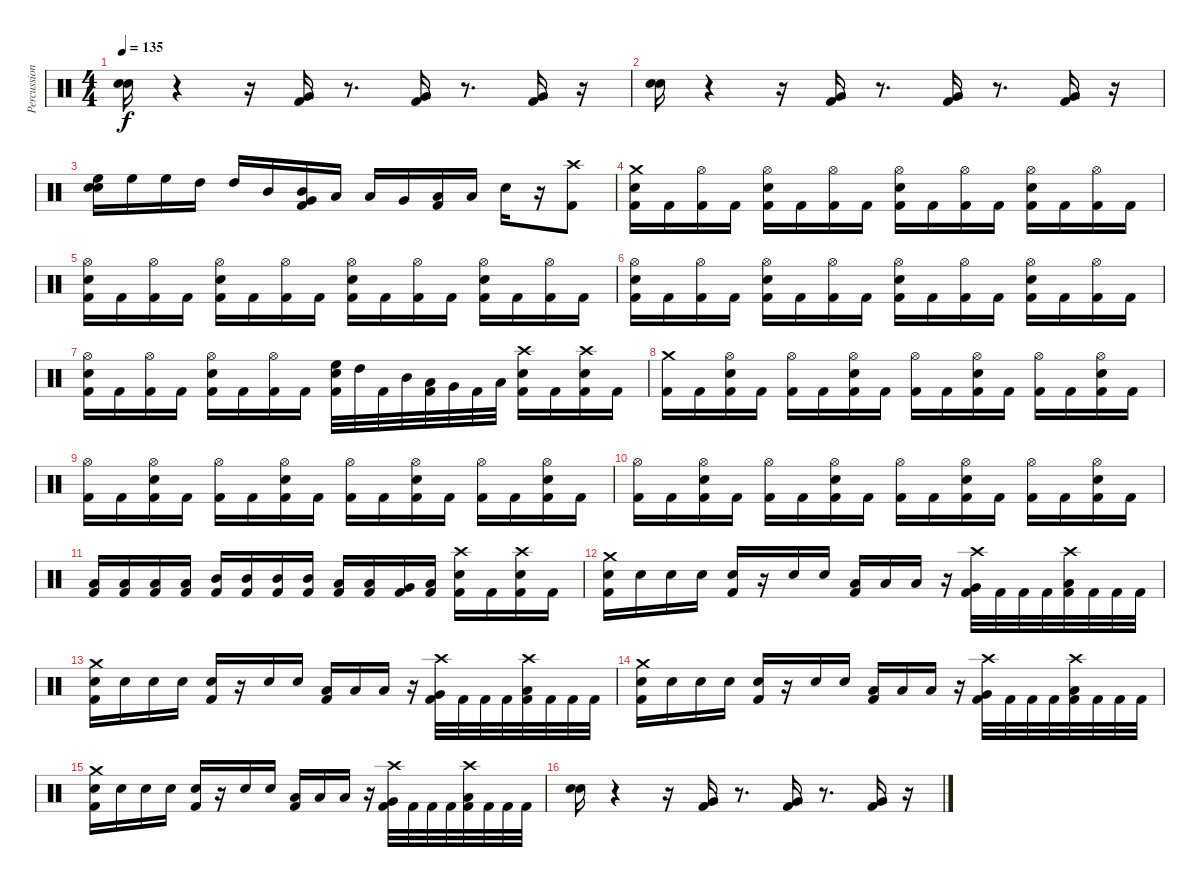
\track ("Percussion" "Percussion") {instrument percussion}
\staff {score}
\articulation defaults
\ts (4 4)
\tempo 135
\clef neutral
\ks c
("Snare (hit) 2" "Electric Snare (hit)").16{dy f} r.4 r.16 ("Kick (hit) 2" "Very Low Tom (hit)").16 r.8{d} ("Kick (hit) 2" "Very Low Tom (hit)").16 r.8{d} ("Kick (hit) 2" "Very Low Tom (hit)").16 r.16 |
("Snare (hit) 2" "Electric Snare (hit)").16 r.4 r.16 ("Kick (hit) 2" "Very Low Tom (hit)").16 r.8{d} ("Kick (hit) 2" "Very Low Tom (hit)").16 r.8{d} ("Kick (hit) 2" "Very Low Tom (hit)").16 r.16 |
("Snare (hit) 2" "Electric Snare (hit)" "High Floor Tom (hit)").16 "High Floor Tom (hit)".16 "High Floor Tom (hit)".16 "High Tom (hit)".16 "High Tom (hit)".16 "Mid Tom (hit)".16 ("Kick (hit) 2" "Very Low Tom (hit)" "Mid Tom (hit)").16 "Low Tom (hit)".16 "Low Tom (hit)".16 "Very Low Tom (hit)".16 ("Kick (hit) 2" "Low Floor Tom (hit)").16 "Low Floor Tom (hit)".16 "Electric Snare (hit)".16 r.16 ("Kick (hit) 2" "Crash high (hit)").8 |
("Kick (hit) 2" "Electric Snare (hit)" "Crash medium (hit)").16 "Kick (hit) 2".16 ("Kick (hit) 2" "Hi-Hat (open)").16 "Kick (hit) 2".16 ("Kick (hit) 2" "Electric Snare (hit)" "Hi-Hat (open)").16 "Kick (hit) 2".16 ("Kick (hit) 2" "Hi-Hat (open)").16 "Kick (hit) 2".16 ("Kick (hit) 2" "Electric Snare (hit)" "Hi-Hat (open)").16 "Kick (hit) 2".16 ("Kick (hit) 2" "Hi-Hat (open)").16 "Kick (hit) 2".16 ("Kick (hit) 2" "Electric Snare (hit)" "Hi-Hat (open)").16 "Kick (hit) 2".16 ("Kick (hit) 2" "Hi-Hat (open)").16 "Kick (hit) 2".16 |
("Kick (hit) 2" "Electric Snare (hit)" "Hi-Hat (open)").16 "Kick (hit) 2".16 ("Kick (hit) 2" "Hi-Hat (open)").16 "Kick (hit) 2".16 ("Kick (hit) 2" "Electric Snare (hit)" "Hi-Hat (open)").16 "Kick (hit) 2".16 ("Kick (hit) 2" "Hi-Hat (open)").16 "Kick (hit) 2".16 ("Kick (hit) 2" "Electric Snare (hit)" "Hi-Hat (open)").16 "Kick (hit) 2".16 ("Kick (hit) 2" "Hi-Hat (open)").16 "Kick (hit) 2".16 ("Kick (hit) 2" "Electric Snare (hit)" "Hi-Hat (open)").16 "Kick (hit) 2".16 ("Kick (hit) 2" "Hi-Hat (open)").16 "Kick (hit) 2".16 |
("Kick (hit) 2" "Electric Snare (hit)" "Hi-Hat (open)").16 "Kick (hit) 2".16 ("Kick (hit) 2" "Hi-Hat (open)").16 "Kick (hit) 2".16 ("Kick (hit) 2" "Electric Snare (hit)" "Hi-Hat (open)").16 "Kick (hit) 2".16 ("Kick (hit) 2" "Hi-Hat (open)").16 "Kick (hit) 2".16 ("Kick (hit) 2" "Electric Snare (hit)" "Hi-Hat (open)").16 "Kick (hit) 2".16 ("Kick (hit) 2" "Hi-Hat (open)").16 "Kick (hit) 2".16 ("Kick (hit) 2" "Electric Snare (hit)" "Hi-Hat (open)").16 "Kick (hit) 2".16 ("Kick (hit) 2" "Hi-Hat (open)").16 "Kick (hit) 2".16 |
("Kick (hit) 2" "Electric Snare (hit)" "Hi-Hat (open)").16 "Kick (hit) 2".16 ("Kick (hit) 2" "Hi-Hat (open)").16 "Kick (hit) 2".16 ("Kick (hit) 2" "Electric Snare (hit)" "Hi-Hat (open)").16 "Kick (hit) 2".16 ("Kick (hit) 2" "Hi-Hat (open)").16 "Kick (hit) 2".16 ("Kick (hit) 2" "Electric Snare (hit)" "High Floor Tom (hit)").32 "High Tom (hit)".32 "Kick (hit) 2".32 "Mid Tom (hit)".32 ("Kick (hit) 2" "Low Tom (hit)").32 "Very Low Tom (hit)".32 "Kick (hit) 2".32 "Low Floor Tom (hit)".32 ("Kick (hit) 2" "Electric Snare (hit)" "Crash high (hit)").16 "Kick (hit) 2".16 ("Kick (hit) 2" "Electric Snare (hit)" "Crash high (hit)").16 "Kick (hit) 2".16 |
("Kick (hit) 2" "Crash medium (hit)").16 "Kick (hit) 2".16 ("Kick (hit) 2" "Electric Snare (hit)" "Hi-Hat (open)").16 "Kick (hit) 2".16 ("Kick (hit) 2" "Hi-Hat (open)").16 "Kick (hit) 2".16 ("Kick (hit) 2" "Electric Snare (hit)" "Hi-Hat (open)").16 "Kick (hit) 2".16 ("Kick (hit) 2" "Hi-Hat (open)").16 "Kick (hit) 2".16 ("Kick (hit) 2" "Electric Snare (hit)" "Hi-Hat (open)").16 "Kick (hit) 2".16 ("Kick (hit) 2" "Hi-Hat (open)").16 "Kick (hit) 2".16 ("Kick (hit) 2" "Electric Snare (hit)" "Hi-Hat (open)").16 "Kick (hit) 2".16 |
("Kick (hit) 2" "Hi-Hat (open)").16 "Kick (hit) 2".16 ("Kick (hit) 2" "Electric Snare (hit)" "Hi-Hat (open)").16 "Kick (hit) 2".16 ("Kick (hit) 2" "Hi-Hat (open)").16 "Kick (hit) 2".16 ("Kick (hit) 2" "Electric Snare (hit)" "Hi-Hat (open)").16 "Kick (hit) 2".16 ("Kick (hit) 2" "Hi-Hat (open)").16 "Kick (hit) 2".16 ("Kick (hit) 2" "Electric Snare (hit)" "Hi-Hat (open)").16 "Kick (hit) 2".16 ("Kick (hit) 2" "Hi-Hat (open)").16 "Kick (hit) 2".16 ("Kick (hit) 2" "Electric Snare (hit)" "Hi-Hat (open)").16 "Kick (hit) 2".16 |
("Kick (hit) 2" "Hi-Hat (open)").16 "Kick (hit) 2".16 ("Kick (hit) 2" "Electric Snare (hit)" "Hi-Hat (open)").16 "Kick (hit) 2".16 ("Kick (hit) 2" "Hi-Hat (open)").16 "Kick (hit) 2".16 ("Kick (hit) 2" "Electric Snare (hit)" "Hi-Hat (open)").16 "Kick (hit) 2".16 ("Kick (hit) 2" "Hi-Hat (open)").16 "Kick (hit) 2".16 ("Kick (hit) 2" "Electric Snare (hit)" "Hi-Hat (open)").16 "Kick (hit) 2".16 ("Kick (hit) 2" "Hi-Hat (open)").16 "Kick (hit) 2".16 ("Kick (hit) 2" "Electric Snare (hit)" "Hi-Hat (open)").16 "Kick (hit) 2".16 |
("Kick (hit) 2" "Low Floor Tom (hit)").16 ("Kick (hit) 2" "Low Floor Tom (hit)").16 ("Kick (hit) 2" "Low Floor Tom (hit)").16 ("Kick (hit) 2" "Low Floor Tom (hit)").16 ("Kick (hit) 2" "Mid Tom (hit)").16 ("Kick (hit) 2" "Mid Tom (hit)").16 ("Kick (hit) 2" "Mid Tom (hit)").16 ("Kick (hit) 2" "Mid Tom (hit)").16 ("Kick (hit) 2" "Low Tom (hit)").16 ("Kick (hit) 2" "Low Tom (hit)").16 ("Kick (hit) 2" "Very Low Tom (hit)").16 ("Kick (hit) 2" "Low Floor Tom (hit)").16 ("Kick (hit) 2" "Electric Snare (hit)" "Crash high (hit)").16 "Kick (hit) 2".16 ("Kick (hit) 2" "Electric Snare (hit)" "Crash high (hit)").16 "Kick (hit) 2".16 |
("Kick (hit) 2" "Electric Snare (hit)" "Crash medium (hit)").16 "Electric Snare (hit)".16 "Electric Snare (hit)".16 "Electric Snare (hit)".16 ("Kick (hit) 2" "Electric Snare (hit)").16 r.16 "Electric Snare (hit)".16 "Electric Snare (hit)".16 ("Kick (hit) 2" "Low Tom (hit)").16 "Low Tom (hit)".16 "Low Tom (hit)".16 r.16 ("Kick (hit) 2" "Very Low Tom (hit)" "Crash high (hit)").32 "Kick (hit) 2".32 "Kick (hit) 2".32 "Kick (hit) 2".32 ("Kick (hit) 2" "Low Floor Tom (hit)" "Crash high (hit)").32 "Kick (hit) 2".32 "Kick (hit) 2".32 "Kick (hit) 2".32 |
("Kick (hit) 2" "Electric Snare (hit)" "Crash medium (hit)").16 "Electric Snare (hit)".16 "Electric Snare (hit)".16 "Electric Snare (hit)".16 ("Kick (hit) 2" "Electric Snare (hit)").16 r.16 "Electric Snare (hit)".16 "Electric Snare (hit)".16 ("Kick (hit) 2" "Low Tom (hit)").16 "Low Tom (hit)".16 "Low Tom (hit)".16 r.16 ("Kick (hit) 2" "Very Low Tom (hit)" "Crash high (hit)").32 "Kick (hit) 2".32 "Kick (hit) 2".32 "Kick (hit) 2".32 ("Kick (hit) 2" "Low Floor Tom (hit)" "Crash high (hit)").32 "Kick (hit) 2".32 "Kick (hit) 2".32 "Kick (hit) 2".32 |
("Kick (hit) 2" "Electric Snare (hit)" "Crash medium (hit)").16 "Electric Snare (hit)".16 "Electric Snare (hit)".16 "Electric Snare (hit)".16 ("Kick (hit) 2" "Electric Snare (hit)").16 r.16 "Electric Snare (hit)".16 "Electric Snare (hit)".16 ("Kick (hit) 2" "Low Tom (hit)").16 "Low Tom (hit)".16 "Low Tom (hit)".16 r.16 ("Kick (hit) 2" "Very Low Tom (hit)" "Crash high (hit)").32 "Kick (hit) 2".32 "Kick (hit) 2".32 "Kick (hit) 2".32 ("Kick (hit) 2" "Low Floor Tom (hit)" "Crash high (hit)").32 "Kick (hit) 2".32 "Kick (hit) 2".32 "Kick (hit) 2".32 |
("Kick (hit) 2" "Electric Snare (hit)" "Crash medium (hit)").16 "Electric Snare (hit)".16 "Electric Snare (hit)".16 "Electric Snare (hit)".16 ("Kick (hit) 2" "Electric Snare (hit)").16 r.16 "Electric Snare (hit)".16 "Electric Snare (hit)".16 ("Kick (hit) 2" "Low Tom (hit)").16 "Low Tom (hit)".16 "Low Tom (hit)".16 r.16 ("Kick (hit) 2" "Very Low Tom (hit)" "Crash high (hit)").32 "Kick (hit) 2".32 "Kick (hit) 2".32 "Kick (hit) 2".32 ("Kick (hit) 2" "Low Floor Tom (hit)" "Crash high (hit)").32 "Kick (hit) 2".32 "Kick (hit) 2".32 "Kick (hit) 2".32 |
("Snare (hit) 2" "Electric Snare (hit)").16 r.4 r.16 ("Kick (hit) 2" "Very Low Tom (hit)").16 r.8{d} ("Kick (hit) 2" "Very Low Tom (hit)").16 r.8{d} ("Kick (hit) 2" "Very Low Tom (hit)").16 r.16
